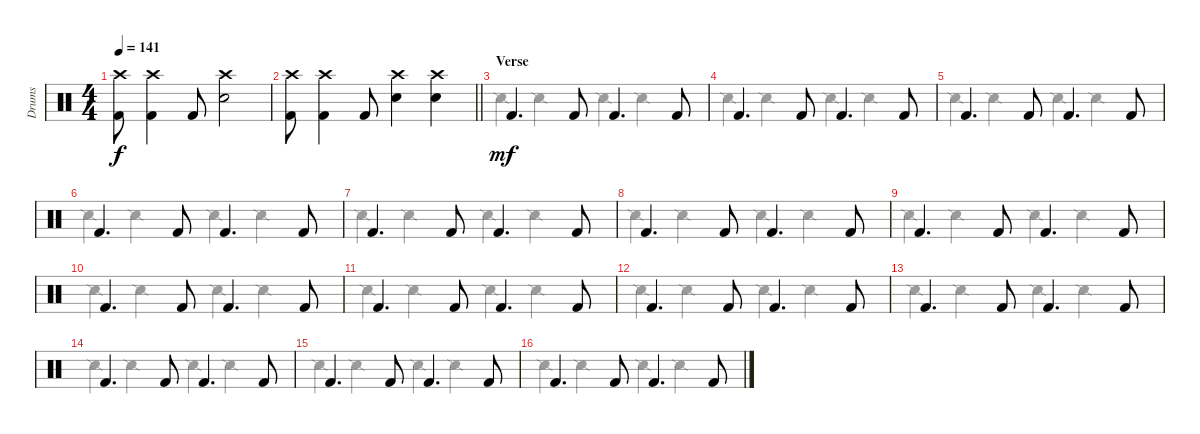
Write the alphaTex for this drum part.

\track ("Drums" "Drums") {instrument percussion}
\staff {score}
\articulation defaults
\voice
\ts (4 4)
\tempo 141
\clef neutral
\ks c
("Kick (hit) 2" "Crash high (hit)").8{dy f} ("Kick (hit) 2" "Crash high (hit)").4 "Kick (hit) 2".8 ("Electric Snare (hit)" "Crash high (hit)").2 |
\barLineRight lightlight
("Kick (hit) 2" "Crash high (hit)").8 ("Kick (hit) 2" "Crash high (hit)").4 "Kick (hit) 2".8 ("Electric Snare (hit)" "Crash high (hit)").4 ("Electric Snare (hit)" "Crash high (hit)").4 |
\section ("" "Verse")
"Kick (hit) 2".4{d dy mf} "Kick (hit) 2".8 "Kick (hit) 2".4{d} "Kick (hit) 2".8 |
"Kick (hit) 2".4{d} "Kick (hit) 2".8 "Kick (hit) 2".4{d} "Kick (hit) 2".8 |
"Kick (hit) 2".4{d} "Kick (hit) 2".8 "Kick (hit) 2".4{d} "Kick (hit) 2".8 |
"Kick (hit) 2".4{d} "Kick (hit) 2".8 "Kick (hit) 2".4{d} "Kick (hit) 2".8 |
"Kick (hit) 2".4{d} "Kick (hit) 2".8 "Kick (hit) 2".4{d} "Kick (hit) 2".8 |
"Kick (hit) 2".4{d} "Kick (hit) 2".8 "Kick (hit) 2".4{d} "Kick (hit) 2".8 |
"Kick (hit) 2".4{d} "Kick (hit) 2".8 "Kick (hit) 2".4{d} "Kick (hit) 2".8 |
"Kick (hit) 2".4{d} "Kick (hit) 2".8 "Kick (hit) 2".4{d} "Kick (hit) 2".8 |
"Kick (hit) 2".4{d} "Kick (hit) 2".8 "Kick (hit) 2".4{d} "Kick (hit) 2".8 |
"Kick (hit) 2".4{d} "Kick (hit) 2".8 "Kick (hit) 2".4{d} "Kick (hit) 2".8 |
"Kick (hit) 2".4{d} "Kick (hit) 2".8 "Kick (hit) 2".4{d} "Kick (hit) 2".8 |
"Kick (hit) 2".4{d} "Kick (hit) 2".8 "Kick (hit) 2".4{d} "Kick (hit) 2".8 |
"Kick (hit) 2".4{d} "Kick (hit) 2".8 "Kick (hit) 2".4{d} "Kick (hit) 2".8 |
"Kick (hit) 2".4{d} "Kick (hit) 2".8 "Kick (hit) 2".4{d} "Kick (hit) 2".8
\voice
\clef neutral
\ottava regular
\simile none
\ks c
|
\barLineRight lightlight
|
"Snare (side stick) 2".4 "Snare (side stick) 2".4 "Snare (side stick) 2".4 "Snare (side stick) 2".4 |
"Snare (side stick) 2".4 "Snare (side stick) 2".4 "Snare (side stick) 2".4 "Snare (side stick) 2".4 |
"Snare (side stick) 2".4 "Snare (side stick) 2".4 "Snare (side stick) 2".4 "Snare (side stick) 2".4 |
"Snare (side stick) 2".4 "Snare (side stick) 2".4 "Snare (side stick) 2".4 "Snare (side stick) 2".4 |
"Snare (side stick) 2".4 "Snare (side stick) 2".4 "Snare (side stick) 2".4 "Snare (side stick) 2".4 |
"Snare (side stick) 2".4 "Snare (side stick) 2".4 "Snare (side stick) 2".4 "Snare (side stick) 2".4 |
"Snare (side stick) 2".4 "Snare (side stick) 2".4 "Snare (side stick) 2".4 "Snare (side stick) 2".4 |
"Snare (side stick) 2".4 "Snare (side stick) 2".4 "Snare (side stick) 2".4 "Snare (side stick) 2".4 |
"Snare (side stick) 2".4 "Snare (side stick) 2".4 "Snare (side stick) 2".4 "Snare (side stick) 2".4 |
"Snare (side stick) 2".4 "Snare (side stick) 2".4 "Snare (side stick) 2".4 "Snare (side stick) 2".4 |
"Snare (side stick) 2".4 "Snare (side stick) 2".4 "Snare (side stick) 2".4 "Snare (side stick) 2".4 |
"Snare (side stick) 2".4 "Snare (side stick) 2".4 "Snare (side stick) 2".4 "Snare (side stick) 2".4 |
"Snare (side stick) 2".4 "Snare (side stick) 2".4 "Snare (side stick) 2".4 "Snare (side stick) 2".4 |
"Snare (side stick) 2".4 "Snare (side stick) 2".4 "Snare (side stick) 2".4 "Snare (side stick) 2".4
